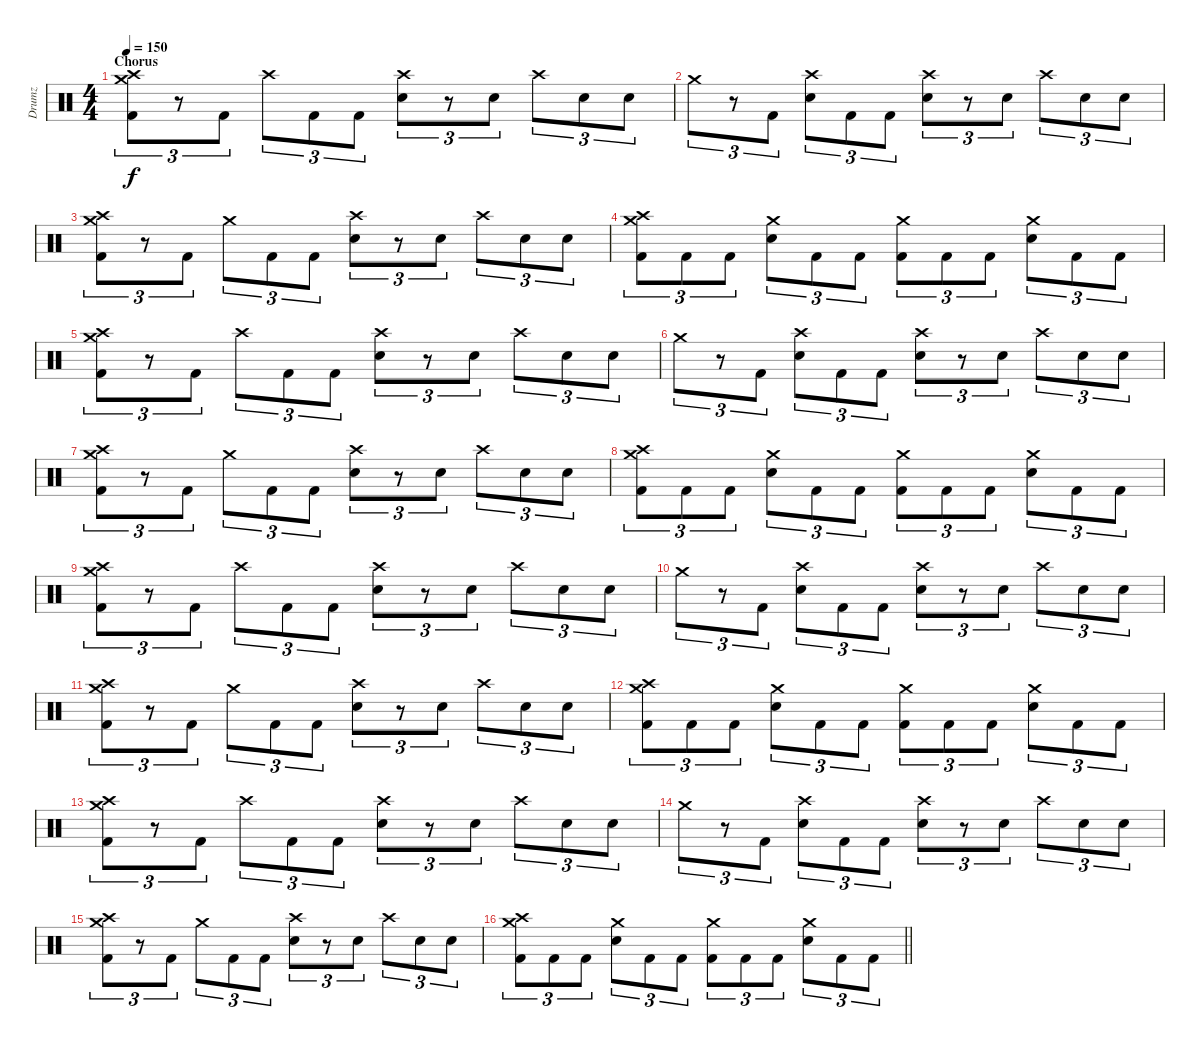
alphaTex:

\track ("Drumz" "Drumz") {instrument percussion}
\staff {score}
\articulation defaults
\ts (4 4)
\section ("" "Chorus")
\tempo 150
\clef neutral
\ks c
("Crash high (hit)" "Crash medium (hit)" "Kick (hit) 2").8{tu (3 2) dy f} r.8{tu (3 2)} "Kick (hit) 2".8{tu (3 2)} "Crash high (hit)".8{tu (3 2)} "Kick (hit) 2".8{tu (3 2)} "Kick (hit) 2".8{tu (3 2)} ("Crash high (hit)" "Snare (hit) 2").8{tu (3 2)} r.8{tu (3 2)} "Snare (hit) 2".8{tu (3 2)} "Crash high (hit)".8{tu (3 2)} "Snare (hit) 2".8{tu (3 2)} "Snare (hit) 2".8{tu (3 2)} |
"Crash medium (hit)".8{tu (3 2)} r.8{tu (3 2)} "Kick (hit) 2".8{tu (3 2)} ("Snare (hit) 2" "Crash high (hit)").8{tu (3 2)} "Kick (hit) 2".8{tu (3 2)} "Kick (hit) 2".8{tu (3 2)} ("Crash high (hit)" "Snare (hit) 2").8{tu (3 2)} r.8{tu (3 2)} "Snare (hit) 2".8{tu (3 2)} "Crash high (hit)".8{tu (3 2)} "Snare (hit) 2".8{tu (3 2)} "Snare (hit) 2".8{tu (3 2)} |
("Crash medium (hit)" "Crash high (hit)" "Kick (hit) 2").8{tu (3 2)} r.8{tu (3 2)} "Kick (hit) 2".8{tu (3 2)} "Crash medium (hit)".8{tu (3 2)} "Kick (hit) 2".8{tu (3 2)} "Kick (hit) 2".8{tu (3 2)} ("Crash high (hit)" "Snare (hit) 2").8{tu (3 2)} r.8{tu (3 2)} "Snare (hit) 2".8{tu (3 2)} "Crash high (hit)".8{tu (3 2)} "Snare (hit) 2".8{tu (3 2)} "Snare (hit) 2".8{tu (3 2)} |
("Crash medium (hit)" "Crash high (hit)" "Kick (hit) 2").8{tu (3 2)} "Kick (hit) 2".8{tu (3 2)} "Kick (hit) 2".8{tu (3 2)} ("Crash medium (hit)" "Snare (hit) 2").8{tu (3 2)} "Kick (hit) 2".8{tu (3 2)} "Kick (hit) 2".8{tu (3 2)} ("Kick (hit) 2" "Crash medium (hit)").8{tu (3 2)} "Kick (hit) 2".8{tu (3 2)} "Kick (hit) 2".8{tu (3 2)} ("Crash medium (hit)" "Snare (hit) 2").8{tu (3 2)} "Kick (hit) 2".8{tu (3 2)} "Kick (hit) 2".8{tu (3 2)} |
("Crash high (hit)" "Crash medium (hit)" "Kick (hit) 2").8{tu (3 2)} r.8{tu (3 2)} "Kick (hit) 2".8{tu (3 2)} "Crash high (hit)".8{tu (3 2)} "Kick (hit) 2".8{tu (3 2)} "Kick (hit) 2".8{tu (3 2)} ("Crash high (hit)" "Snare (hit) 2").8{tu (3 2)} r.8{tu (3 2)} "Snare (hit) 2".8{tu (3 2)} "Crash high (hit)".8{tu (3 2)} "Snare (hit) 2".8{tu (3 2)} "Snare (hit) 2".8{tu (3 2)} |
"Crash medium (hit)".8{tu (3 2)} r.8{tu (3 2)} "Kick (hit) 2".8{tu (3 2)} ("Snare (hit) 2" "Crash high (hit)").8{tu (3 2)} "Kick (hit) 2".8{tu (3 2)} "Kick (hit) 2".8{tu (3 2)} ("Crash high (hit)" "Snare (hit) 2").8{tu (3 2)} r.8{tu (3 2)} "Snare (hit) 2".8{tu (3 2)} "Crash high (hit)".8{tu (3 2)} "Snare (hit) 2".8{tu (3 2)} "Snare (hit) 2".8{tu (3 2)} |
("Crash medium (hit)" "Crash high (hit)" "Kick (hit) 2").8{tu (3 2)} r.8{tu (3 2)} "Kick (hit) 2".8{tu (3 2)} "Crash medium (hit)".8{tu (3 2)} "Kick (hit) 2".8{tu (3 2)} "Kick (hit) 2".8{tu (3 2)} ("Crash high (hit)" "Snare (hit) 2").8{tu (3 2)} r.8{tu (3 2)} "Snare (hit) 2".8{tu (3 2)} "Crash high (hit)".8{tu (3 2)} "Snare (hit) 2".8{tu (3 2)} "Snare (hit) 2".8{tu (3 2)} |
("Crash medium (hit)" "Crash high (hit)" "Kick (hit) 2").8{tu (3 2)} "Kick (hit) 2".8{tu (3 2)} "Kick (hit) 2".8{tu (3 2)} ("Crash medium (hit)" "Snare (hit) 2").8{tu (3 2)} "Kick (hit) 2".8{tu (3 2)} "Kick (hit) 2".8{tu (3 2)} ("Kick (hit) 2" "Crash medium (hit)").8{tu (3 2)} "Kick (hit) 2".8{tu (3 2)} "Kick (hit) 2".8{tu (3 2)} ("Crash medium (hit)" "Snare (hit) 2").8{tu (3 2)} "Kick (hit) 2".8{tu (3 2)} "Kick (hit) 2".8{tu (3 2)} |
("Crash high (hit)" "Crash medium (hit)" "Kick (hit) 2").8{tu (3 2)} r.8{tu (3 2)} "Kick (hit) 2".8{tu (3 2)} "Crash high (hit)".8{tu (3 2)} "Kick (hit) 2".8{tu (3 2)} "Kick (hit) 2".8{tu (3 2)} ("Crash high (hit)" "Snare (hit) 2").8{tu (3 2)} r.8{tu (3 2)} "Snare (hit) 2".8{tu (3 2)} "Crash high (hit)".8{tu (3 2)} "Snare (hit) 2".8{tu (3 2)} "Snare (hit) 2".8{tu (3 2)} |
"Crash medium (hit)".8{tu (3 2)} r.8{tu (3 2)} "Kick (hit) 2".8{tu (3 2)} ("Snare (hit) 2" "Crash high (hit)").8{tu (3 2)} "Kick (hit) 2".8{tu (3 2)} "Kick (hit) 2".8{tu (3 2)} ("Crash high (hit)" "Snare (hit) 2").8{tu (3 2)} r.8{tu (3 2)} "Snare (hit) 2".8{tu (3 2)} "Crash high (hit)".8{tu (3 2)} "Snare (hit) 2".8{tu (3 2)} "Snare (hit) 2".8{tu (3 2)} |
("Crash medium (hit)" "Crash high (hit)" "Kick (hit) 2").8{tu (3 2)} r.8{tu (3 2)} "Kick (hit) 2".8{tu (3 2)} "Crash medium (hit)".8{tu (3 2)} "Kick (hit) 2".8{tu (3 2)} "Kick (hit) 2".8{tu (3 2)} ("Crash high (hit)" "Snare (hit) 2").8{tu (3 2)} r.8{tu (3 2)} "Snare (hit) 2".8{tu (3 2)} "Crash high (hit)".8{tu (3 2)} "Snare (hit) 2".8{tu (3 2)} "Snare (hit) 2".8{tu (3 2)} |
("Crash medium (hit)" "Crash high (hit)" "Kick (hit) 2").8{tu (3 2)} "Kick (hit) 2".8{tu (3 2)} "Kick (hit) 2".8{tu (3 2)} ("Crash medium (hit)" "Snare (hit) 2").8{tu (3 2)} "Kick (hit) 2".8{tu (3 2)} "Kick (hit) 2".8{tu (3 2)} ("Kick (hit) 2" "Crash medium (hit)").8{tu (3 2)} "Kick (hit) 2".8{tu (3 2)} "Kick (hit) 2".8{tu (3 2)} ("Crash medium (hit)" "Snare (hit) 2").8{tu (3 2)} "Kick (hit) 2".8{tu (3 2)} "Kick (hit) 2".8{tu (3 2)} |
("Crash high (hit)" "Crash medium (hit)" "Kick (hit) 2").8{tu (3 2)} r.8{tu (3 2)} "Kick (hit) 2".8{tu (3 2)} "Crash high (hit)".8{tu (3 2)} "Kick (hit) 2".8{tu (3 2)} "Kick (hit) 2".8{tu (3 2)} ("Crash high (hit)" "Snare (hit) 2").8{tu (3 2)} r.8{tu (3 2)} "Snare (hit) 2".8{tu (3 2)} "Crash high (hit)".8{tu (3 2)} "Snare (hit) 2".8{tu (3 2)} "Snare (hit) 2".8{tu (3 2)} |
"Crash medium (hit)".8{tu (3 2)} r.8{tu (3 2)} "Kick (hit) 2".8{tu (3 2)} ("Snare (hit) 2" "Crash high (hit)").8{tu (3 2)} "Kick (hit) 2".8{tu (3 2)} "Kick (hit) 2".8{tu (3 2)} ("Crash high (hit)" "Snare (hit) 2").8{tu (3 2)} r.8{tu (3 2)} "Snare (hit) 2".8{tu (3 2)} "Crash high (hit)".8{tu (3 2)} "Snare (hit) 2".8{tu (3 2)} "Snare (hit) 2".8{tu (3 2)} |
("Crash medium (hit)" "Crash high (hit)" "Kick (hit) 2").8{tu (3 2)} r.8{tu (3 2)} "Kick (hit) 2".8{tu (3 2)} "Crash medium (hit)".8{tu (3 2)} "Kick (hit) 2".8{tu (3 2)} "Kick (hit) 2".8{tu (3 2)} ("Crash high (hit)" "Snare (hit) 2").8{tu (3 2)} r.8{tu (3 2)} "Snare (hit) 2".8{tu (3 2)} "Crash high (hit)".8{tu (3 2)} "Snare (hit) 2".8{tu (3 2)} "Snare (hit) 2".8{tu (3 2)} |
\barLineRight lightlight
("Crash medium (hit)" "Crash high (hit)" "Kick (hit) 2").8{tu (3 2)} "Kick (hit) 2".8{tu (3 2)} "Kick (hit) 2".8{tu (3 2)} ("Crash medium (hit)" "Snare (hit) 2").8{tu (3 2)} "Kick (hit) 2".8{tu (3 2)} "Kick (hit) 2".8{tu (3 2)} ("Kick (hit) 2" "Crash medium (hit)").8{tu (3 2)} "Kick (hit) 2".8{tu (3 2)} "Kick (hit) 2".8{tu (3 2)} ("Crash medium (hit)" "Snare (hit) 2").8{tu (3 2)} "Kick (hit) 2".8{tu (3 2)} "Kick (hit) 2".8{tu (3 2)}
